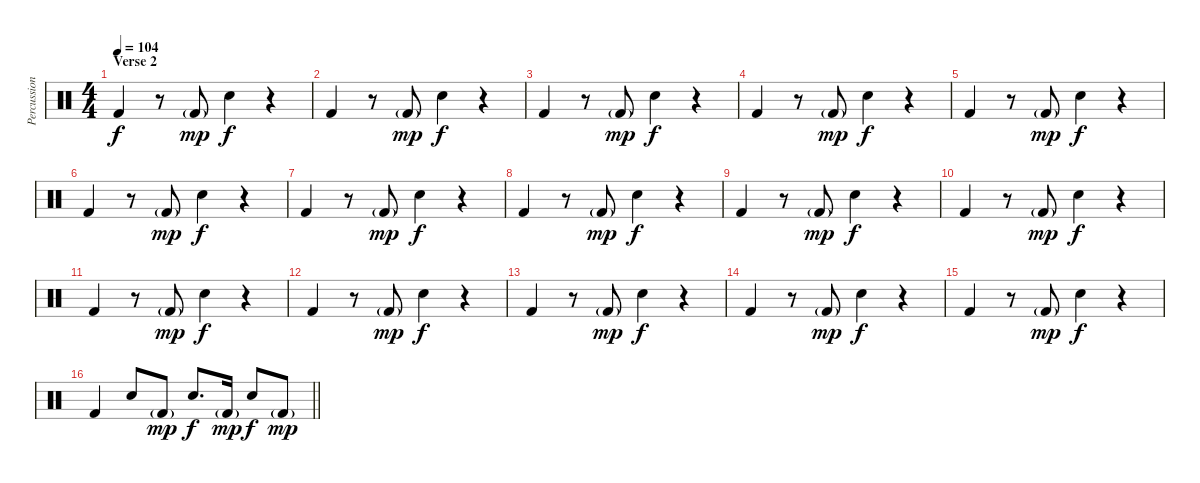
\track ("Percussion" "Percussion") {instrument percussion}
\staff {score}
\articulation defaults
\ts (4 4)
\section ("" "Verse 2")
\tempo 104
\clef neutral
\ks c "Kick (hit) 2".4{dy f}
r.8 "Kick (hit) 2"{g}.8{dy mp} "Snare (hit) 2".4{dy f} r.4 |
"Kick (hit) 2".4 r.8 "Kick (hit) 2"{g}.8{dy mp} "Snare (hit) 2".4{dy f} r.4 |
"Kick (hit) 2".4 r.8 "Kick (hit) 2"{g}.8{dy mp} "Snare (hit) 2".4{dy f} r.4 |
"Kick (hit) 2".4 r.8 "Kick (hit) 2"{g}.8{dy mp} "Snare (hit) 2".4{dy f} r.4 |
"Kick (hit) 2".4 r.8 "Kick (hit) 2"{g}.8{dy mp} "Snare (hit) 2".4{dy f} r.4 |
"Kick (hit) 2".4 r.8 "Kick (hit) 2"{g}.8{dy mp} "Snare (hit) 2".4{dy f} r.4 |
"Kick (hit) 2".4 r.8 "Kick (hit) 2"{g}.8{dy mp} "Snare (hit) 2".4{dy f} r.4 |
"Kick (hit) 2".4 r.8 "Kick (hit) 2"{g}.8{dy mp} "Snare (hit) 2".4{dy f} r.4 |
"Kick (hit) 2".4 r.8 "Kick (hit) 2"{g}.8{dy mp} "Snare (hit) 2".4{dy f} r.4 |
"Kick (hit) 2".4 r.8 "Kick (hit) 2"{g}.8{dy mp} "Snare (hit) 2".4{dy f} r.4 |
"Kick (hit) 2".4 r.8 "Kick (hit) 2"{g}.8{dy mp} "Snare (hit) 2".4{dy f} r.4 |
"Kick (hit) 2".4 r.8 "Kick (hit) 2"{g}.8{dy mp} "Snare (hit) 2".4{dy f} r.4 |
"Kick (hit) 2".4 r.8 "Kick (hit) 2"{g}.8{dy mp} "Snare (hit) 2".4{dy f} r.4 |
"Kick (hit) 2".4 r.8 "Kick (hit) 2"{g}.8{dy mp} "Snare (hit) 2".4{dy f} r.4 |
"Kick (hit) 2".4 r.8 "Kick (hit) 2"{g}.8{dy mp} "Snare (hit) 2".4{dy f} r.4 |
\barLineRight lightlight "Kick (hit) 2".4 "Snare (hit) 2".8 "Kick (hit) 2"{g}.8{dy mp} "Snare (hit) 2".8{d dy f} "Kick (hit) 2"{g}.16{dy mp} "Snare (hit) 2".8{dy f} "Kick (hit) 2"{g}.8{dy mp}
